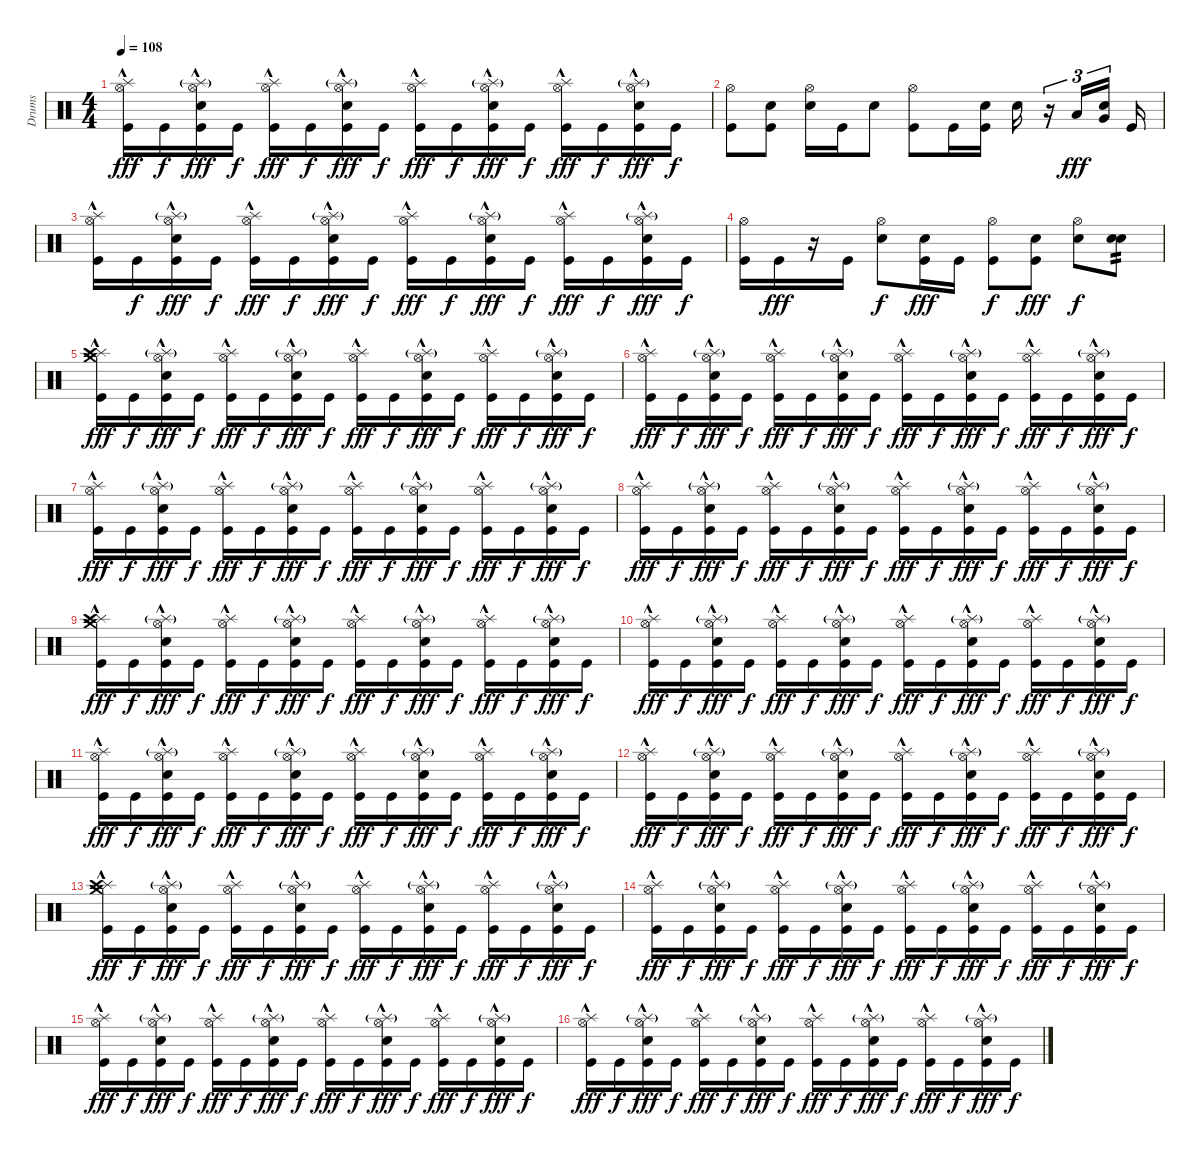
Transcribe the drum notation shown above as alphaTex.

\track ("Drums" "Drums") {instrument percussion}
\staff {score}
\articulation defaults
\ts (4 4)
\tempo 108
\clef neutral
\ks c
("Hi-Hat (open)" "Splash (hit)" "Kick (hit)"{hac}).16{dy fff} "Kick (hit)".16{dy f} ("Hi-Hat (open)" "Splash (hit)"{g} "Electric Snare (hit)" "Kick (hit)"{hac}).16{dy fff} "Kick (hit)".16{dy f} ("Hi-Hat (open)" "Splash (hit)" "Kick (hit)"{hac}).16{dy fff} "Kick (hit)".16{dy f} ("Hi-Hat (open)" "Splash (hit)"{g} "Electric Snare (hit)" "Kick (hit)"{hac}).16{dy fff} "Kick (hit)".16{dy f} ("Hi-Hat (open)" "Splash (hit)" "Kick (hit)"{hac}).16{dy fff} "Kick (hit)".16{dy f} ("Hi-Hat (open)" "Splash (hit)"{g} "Electric Snare (hit)" "Kick (hit)"{hac}).16{dy fff} "Kick (hit)".16{dy f} ("Hi-Hat (open)" "Splash (hit)" "Kick (hit)"{hac}).16{dy fff} "Kick (hit)".16{dy f} ("Hi-Hat (open)" "Splash (hit)"{g} "Electric Snare (hit)" "Kick (hit)"{hac}).16{dy fff} "Kick (hit)".16{dy f} |
("Hi-Hat (open)" "Kick (hit)").8 ("Snare (hit)" "Kick (hit)").8 ("Hi-Hat (open)" "Electric Snare (hit)").16 "Kick (hit)".16 "Snare (hit)".8 ("Hi-Hat (open)" "Kick (hit)").8 "Kick (hit)".16 ("Snare (hit)" "Kick (hit)").16 "Electric Snare (hit)".16 r.16{tu (3 2)} "Low Tom (hit)".16{tu (3 2) dy fff} ("Snare (hit)" "Very Low Tom (hit)").16{tu (3 2) beam splitsecondary} "Kick (hit)".16 |
("Hi-Hat (open)" "Splash (hit)" "Kick (hit)"{hac}).16 "Kick (hit)".16{dy f} ("Hi-Hat (open)" "Splash (hit)"{g} "Electric Snare (hit)" "Kick (hit)"{hac}).16{dy fff} "Kick (hit)".16{dy f} ("Hi-Hat (open)" "Splash (hit)" "Kick (hit)"{hac}).16{dy fff} "Kick (hit)".16{dy f} ("Hi-Hat (open)" "Splash (hit)"{g} "Electric Snare (hit)" "Kick (hit)"{hac}).16{dy fff} "Kick (hit)".16{dy f} ("Hi-Hat (open)" "Splash (hit)" "Kick (hit)"{hac}).16{dy fff} "Kick (hit)".16{dy f} ("Hi-Hat (open)" "Splash (hit)"{g} "Electric Snare (hit)" "Kick (hit)"{hac}).16{dy fff} "Kick (hit)".16{dy f} ("Hi-Hat (open)" "Splash (hit)" "Kick (hit)"{hac}).16{dy fff} "Kick (hit)".16{dy f} ("Hi-Hat (open)" "Splash (hit)"{g} "Electric Snare (hit)" "Kick (hit)"{hac}).16{dy fff} "Kick (hit)".16{dy f} |
("Hi-Hat (open)" "Kick (hit)").16 "Kick (hit)".16{dy fff} r.16 "Kick (hit)".16 ("Hi-Hat (open)" "Electric Snare (hit)").8{dy f} ("Snare (hit)" "Kick (hit)").16{dy fff} "Kick (hit)".16 ("Hi-Hat (open)" "Kick (hit)").8{dy f} ("Snare (hit)" "Kick (hit)").8{dy fff} ("Hi-Hat (open)" "Electric Snare (hit)").8{dy f} ("Snare (hit)" "Electric Snare (hit)").8{tp 2} |
("Crash medium (hit)" "Splash (hit)" "Crash high (hit)" "Kick (hit)"{hac}).16{dy fff} "Kick (hit)".16{dy f} ("Hi-Hat (open)" "Splash (hit)"{g} "Electric Snare (hit)" "Kick (hit)"{hac}).16{dy fff} "Kick (hit)".16{dy f} ("Hi-Hat (open)" "Splash (hit)" "Kick (hit)"{hac}).16{dy fff} "Kick (hit)".16{dy f} ("Hi-Hat (open)" "Splash (hit)"{g} "Electric Snare (hit)" "Kick (hit)"{hac}).16{dy fff} "Kick (hit)".16{dy f} ("Hi-Hat (open)" "Splash (hit)" "Kick (hit)"{hac}).16{dy fff} "Kick (hit)".16{dy f} ("Hi-Hat (open)" "Splash (hit)"{g} "Electric Snare (hit)" "Kick (hit)"{hac}).16{dy fff} "Kick (hit)".16{dy f} ("Hi-Hat (open)" "Splash (hit)" "Kick (hit)"{hac}).16{dy fff} "Kick (hit)".16{dy f} ("Hi-Hat (open)" "Splash (hit)"{g} "Electric Snare (hit)" "Kick (hit)"{hac}).16{dy fff} "Kick (hit)".16{dy f} |
("Hi-Hat (open)" "Splash (hit)" "Kick (hit)"{hac}).16{dy fff} "Kick (hit)".16{dy f} ("Hi-Hat (open)" "Splash (hit)"{g} "Electric Snare (hit)" "Kick (hit)"{hac}).16{dy fff} "Kick (hit)".16{dy f} ("Hi-Hat (open)" "Splash (hit)" "Kick (hit)"{hac}).16{dy fff} "Kick (hit)".16{dy f} ("Hi-Hat (open)" "Splash (hit)"{g} "Electric Snare (hit)" "Kick (hit)"{hac}).16{dy fff} "Kick (hit)".16{dy f} ("Hi-Hat (open)" "Splash (hit)" "Kick (hit)"{hac}).16{dy fff} "Kick (hit)".16{dy f} ("Hi-Hat (open)" "Splash (hit)"{g} "Electric Snare (hit)" "Kick (hit)"{hac}).16{dy fff} "Kick (hit)".16{dy f} ("Hi-Hat (open)" "Splash (hit)" "Kick (hit)"{hac}).16{dy fff} "Kick (hit)".16{dy f} ("Hi-Hat (open)" "Splash (hit)"{g} "Electric Snare (hit)" "Kick (hit)"{hac}).16{dy fff} "Kick (hit)".16{dy f} |
("Hi-Hat (open)" "Splash (hit)" "Kick (hit)"{hac}).16{dy fff} "Kick (hit)".16{dy f} ("Hi-Hat (open)" "Splash (hit)"{g} "Electric Snare (hit)" "Kick (hit)"{hac}).16{dy fff} "Kick (hit)".16{dy f} ("Hi-Hat (open)" "Splash (hit)" "Kick (hit)"{hac}).16{dy fff} "Kick (hit)".16{dy f} ("Hi-Hat (open)" "Splash (hit)"{g} "Electric Snare (hit)" "Kick (hit)"{hac}).16{dy fff} "Kick (hit)".16{dy f} ("Hi-Hat (open)" "Splash (hit)" "Kick (hit)"{hac}).16{dy fff} "Kick (hit)".16{dy f} ("Hi-Hat (open)" "Splash (hit)"{g} "Electric Snare (hit)" "Kick (hit)"{hac}).16{dy fff} "Kick (hit)".16{dy f} ("Hi-Hat (open)" "Splash (hit)" "Kick (hit)"{hac}).16{dy fff} "Kick (hit)".16{dy f} ("Hi-Hat (open)" "Splash (hit)"{g} "Electric Snare (hit)" "Kick (hit)"{hac}).16{dy fff} "Kick (hit)".16{dy f} |
("Hi-Hat (open)" "Splash (hit)" "Kick (hit)"{hac}).16{dy fff} "Kick (hit)".16{dy f} ("Hi-Hat (open)" "Splash (hit)"{g} "Electric Snare (hit)" "Kick (hit)"{hac}).16{dy fff} "Kick (hit)".16{dy f} ("Hi-Hat (open)" "Splash (hit)" "Kick (hit)"{hac}).16{dy fff} "Kick (hit)".16{dy f} ("Hi-Hat (open)" "Splash (hit)"{g} "Electric Snare (hit)" "Kick (hit)"{hac}).16{dy fff} "Kick (hit)".16{dy f} ("Hi-Hat (open)" "Splash (hit)" "Kick (hit)"{hac}).16{dy fff} "Kick (hit)".16{dy f} ("Hi-Hat (open)" "Splash (hit)"{g} "Electric Snare (hit)" "Kick (hit)"{hac}).16{dy fff} "Kick (hit)".16{dy f} ("Hi-Hat (open)" "Splash (hit)" "Kick (hit)"{hac}).16{dy fff} "Kick (hit)".16{dy f} ("Hi-Hat (open)" "Splash (hit)"{g} "Electric Snare (hit)" "Kick (hit)"{hac}).16{dy fff} "Kick (hit)".16{dy f} |
("Crash medium (hit)" "Splash (hit)" "Crash high (hit)" "Kick (hit)"{hac}).16{dy fff} "Kick (hit)".16{dy f} ("Hi-Hat (open)" "Splash (hit)"{g} "Electric Snare (hit)" "Kick (hit)"{hac}).16{dy fff} "Kick (hit)".16{dy f} ("Hi-Hat (open)" "Splash (hit)" "Kick (hit)"{hac}).16{dy fff} "Kick (hit)".16{dy f} ("Hi-Hat (open)" "Splash (hit)"{g} "Electric Snare (hit)" "Kick (hit)"{hac}).16{dy fff} "Kick (hit)".16{dy f} ("Hi-Hat (open)" "Splash (hit)" "Kick (hit)"{hac}).16{dy fff} "Kick (hit)".16{dy f} ("Hi-Hat (open)" "Splash (hit)"{g} "Electric Snare (hit)" "Kick (hit)"{hac}).16{dy fff} "Kick (hit)".16{dy f} ("Hi-Hat (open)" "Splash (hit)" "Kick (hit)"{hac}).16{dy fff} "Kick (hit)".16{dy f} ("Hi-Hat (open)" "Splash (hit)"{g} "Electric Snare (hit)" "Kick (hit)"{hac}).16{dy fff} "Kick (hit)".16{dy f} |
("Hi-Hat (open)" "Splash (hit)" "Kick (hit)"{hac}).16{dy fff} "Kick (hit)".16{dy f} ("Hi-Hat (open)" "Splash (hit)"{g} "Electric Snare (hit)" "Kick (hit)"{hac}).16{dy fff} "Kick (hit)".16{dy f} ("Hi-Hat (open)" "Splash (hit)" "Kick (hit)"{hac}).16{dy fff} "Kick (hit)".16{dy f} ("Hi-Hat (open)" "Splash (hit)"{g} "Electric Snare (hit)" "Kick (hit)"{hac}).16{dy fff} "Kick (hit)".16{dy f} ("Hi-Hat (open)" "Splash (hit)" "Kick (hit)"{hac}).16{dy fff} "Kick (hit)".16{dy f} ("Hi-Hat (open)" "Splash (hit)"{g} "Electric Snare (hit)" "Kick (hit)"{hac}).16{dy fff} "Kick (hit)".16{dy f} ("Hi-Hat (open)" "Splash (hit)" "Kick (hit)"{hac}).16{dy fff} "Kick (hit)".16{dy f} ("Hi-Hat (open)" "Splash (hit)"{g} "Electric Snare (hit)" "Kick (hit)"{hac}).16{dy fff} "Kick (hit)".16{dy f} |
("Hi-Hat (open)" "Splash (hit)" "Kick (hit)"{hac}).16{dy fff} "Kick (hit)".16{dy f} ("Hi-Hat (open)" "Splash (hit)"{g} "Electric Snare (hit)" "Kick (hit)"{hac}).16{dy fff} "Kick (hit)".16{dy f} ("Hi-Hat (open)" "Splash (hit)" "Kick (hit)"{hac}).16{dy fff} "Kick (hit)".16{dy f} ("Hi-Hat (open)" "Splash (hit)"{g} "Electric Snare (hit)" "Kick (hit)"{hac}).16{dy fff} "Kick (hit)".16{dy f} ("Hi-Hat (open)" "Splash (hit)" "Kick (hit)"{hac}).16{dy fff} "Kick (hit)".16{dy f} ("Hi-Hat (open)" "Splash (hit)"{g} "Electric Snare (hit)" "Kick (hit)"{hac}).16{dy fff} "Kick (hit)".16{dy f} ("Hi-Hat (open)" "Splash (hit)" "Kick (hit)"{hac}).16{dy fff} "Kick (hit)".16{dy f} ("Hi-Hat (open)" "Splash (hit)"{g} "Electric Snare (hit)" "Kick (hit)"{hac}).16{dy fff} "Kick (hit)".16{dy f} |
("Hi-Hat (open)" "Splash (hit)" "Kick (hit)"{hac}).16{dy fff} "Kick (hit)".16{dy f} ("Hi-Hat (open)" "Splash (hit)"{g} "Electric Snare (hit)" "Kick (hit)"{hac}).16{dy fff} "Kick (hit)".16{dy f} ("Hi-Hat (open)" "Splash (hit)" "Kick (hit)"{hac}).16{dy fff} "Kick (hit)".16{dy f} ("Hi-Hat (open)" "Splash (hit)"{g} "Electric Snare (hit)" "Kick (hit)"{hac}).16{dy fff} "Kick (hit)".16{dy f} ("Hi-Hat (open)" "Splash (hit)" "Kick (hit)"{hac}).16{dy fff} "Kick (hit)".16{dy f} ("Hi-Hat (open)" "Splash (hit)"{g} "Electric Snare (hit)" "Kick (hit)"{hac}).16{dy fff} "Kick (hit)".16{dy f} ("Hi-Hat (open)" "Splash (hit)" "Kick (hit)"{hac}).16{dy fff} "Kick (hit)".16{dy f} ("Hi-Hat (open)" "Splash (hit)"{g} "Electric Snare (hit)" "Kick (hit)"{hac}).16{dy fff} "Kick (hit)".16{dy f} |
("Crash medium (hit)" "Splash (hit)" "Crash high (hit)" "Kick (hit)"{hac}).16{dy fff} "Kick (hit)".16{dy f} ("Hi-Hat (open)" "Splash (hit)"{g} "Electric Snare (hit)" "Kick (hit)"{hac}).16{dy fff} "Kick (hit)".16{dy f} ("Hi-Hat (open)" "Splash (hit)" "Kick (hit)"{hac}).16{dy fff} "Kick (hit)".16{dy f} ("Hi-Hat (open)" "Splash (hit)"{g} "Electric Snare (hit)" "Kick (hit)"{hac}).16{dy fff} "Kick (hit)".16{dy f} ("Hi-Hat (open)" "Splash (hit)" "Kick (hit)"{hac}).16{dy fff} "Kick (hit)".16{dy f} ("Hi-Hat (open)" "Splash (hit)"{g} "Electric Snare (hit)" "Kick (hit)"{hac}).16{dy fff} "Kick (hit)".16{dy f} ("Hi-Hat (open)" "Splash (hit)" "Kick (hit)"{hac}).16{dy fff} "Kick (hit)".16{dy f} ("Hi-Hat (open)" "Splash (hit)"{g} "Electric Snare (hit)" "Kick (hit)"{hac}).16{dy fff} "Kick (hit)".16{dy f} |
("Hi-Hat (open)" "Splash (hit)" "Kick (hit)"{hac}).16{dy fff} "Kick (hit)".16{dy f} ("Hi-Hat (open)" "Splash (hit)"{g} "Electric Snare (hit)" "Kick (hit)"{hac}).16{dy fff} "Kick (hit)".16{dy f} ("Hi-Hat (open)" "Splash (hit)" "Kick (hit)"{hac}).16{dy fff} "Kick (hit)".16{dy f} ("Hi-Hat (open)" "Splash (hit)"{g} "Electric Snare (hit)" "Kick (hit)"{hac}).16{dy fff} "Kick (hit)".16{dy f} ("Hi-Hat (open)" "Splash (hit)" "Kick (hit)"{hac}).16{dy fff} "Kick (hit)".16{dy f} ("Hi-Hat (open)" "Splash (hit)"{g} "Electric Snare (hit)" "Kick (hit)"{hac}).16{dy fff} "Kick (hit)".16{dy f} ("Hi-Hat (open)" "Splash (hit)" "Kick (hit)"{hac}).16{dy fff} "Kick (hit)".16{dy f} ("Hi-Hat (open)" "Splash (hit)"{g} "Electric Snare (hit)" "Kick (hit)"{hac}).16{dy fff} "Kick (hit)".16{dy f} |
("Hi-Hat (open)" "Splash (hit)" "Kick (hit)"{hac}).16{dy fff} "Kick (hit)".16{dy f} ("Hi-Hat (open)" "Splash (hit)"{g} "Electric Snare (hit)" "Kick (hit)"{hac}).16{dy fff} "Kick (hit)".16{dy f} ("Hi-Hat (open)" "Splash (hit)" "Kick (hit)"{hac}).16{dy fff} "Kick (hit)".16{dy f} ("Hi-Hat (open)" "Splash (hit)"{g} "Electric Snare (hit)" "Kick (hit)"{hac}).16{dy fff} "Kick (hit)".16{dy f} ("Hi-Hat (open)" "Splash (hit)" "Kick (hit)"{hac}).16{dy fff} "Kick (hit)".16{dy f} ("Hi-Hat (open)" "Splash (hit)"{g} "Electric Snare (hit)" "Kick (hit)"{hac}).16{dy fff} "Kick (hit)".16{dy f} ("Hi-Hat (open)" "Splash (hit)" "Kick (hit)"{hac}).16{dy fff} "Kick (hit)".16{dy f} ("Hi-Hat (open)" "Splash (hit)"{g} "Electric Snare (hit)" "Kick (hit)"{hac}).16{dy fff} "Kick (hit)".16{dy f} |
("Hi-Hat (open)" "Splash (hit)" "Kick (hit)"{hac}).16{dy fff} "Kick (hit)".16{dy f} ("Hi-Hat (open)" "Splash (hit)"{g} "Electric Snare (hit)" "Kick (hit)"{hac}).16{dy fff} "Kick (hit)".16{dy f} ("Hi-Hat (open)" "Splash (hit)" "Kick (hit)"{hac}).16{dy fff} "Kick (hit)".16{dy f} ("Hi-Hat (open)" "Splash (hit)"{g} "Electric Snare (hit)" "Kick (hit)"{hac}).16{dy fff} "Kick (hit)".16{dy f} ("Hi-Hat (open)" "Splash (hit)" "Kick (hit)"{hac}).16{dy fff} "Kick (hit)".16{dy f} ("Hi-Hat (open)" "Splash (hit)"{g} "Electric Snare (hit)" "Kick (hit)"{hac}).16{dy fff} "Kick (hit)".16{dy f} ("Hi-Hat (open)" "Splash (hit)" "Kick (hit)"{hac}).16{dy fff} "Kick (hit)".16{dy f} ("Hi-Hat (open)" "Splash (hit)"{g} "Electric Snare (hit)" "Kick (hit)"{hac}).16{dy fff} "Kick (hit)".16{dy f}
